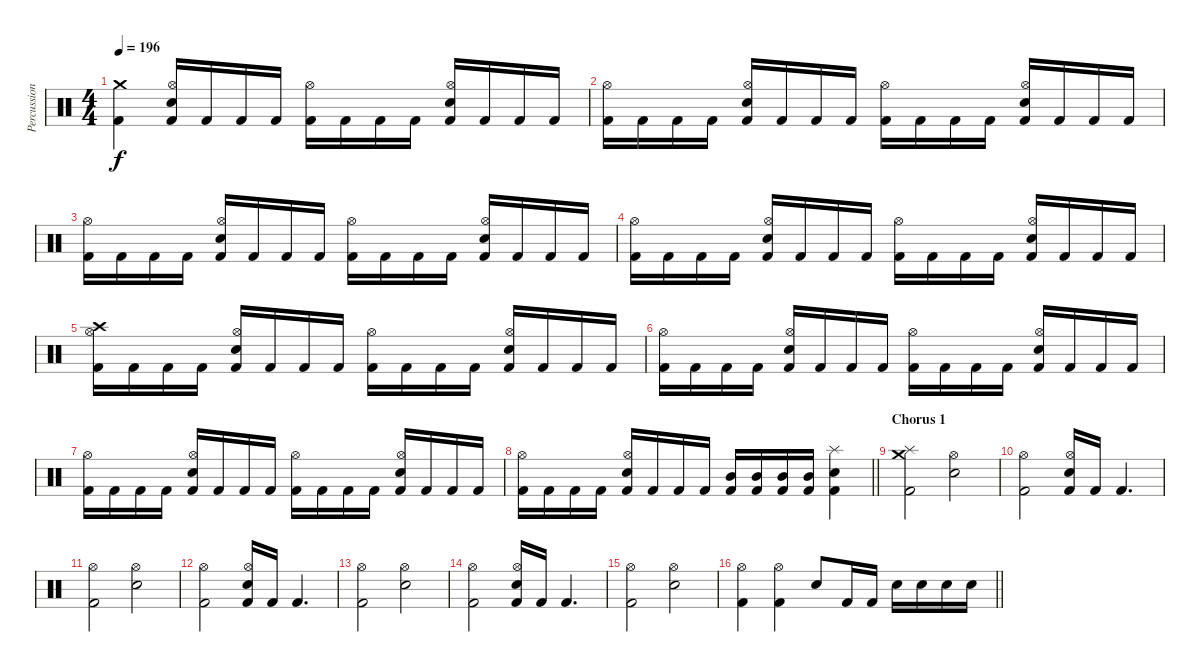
\track ("Percussion" "Percussion") {instrument percussion}
\staff {score}
\articulation defaults
\ts (4 4)
\tempo 196
\clef neutral
\ks c
("Crash medium (hit)" "Kick (hit) 2").4{dy f} ("Hi-Hat (open)" "Electric Snare (hit)" "Kick (hit) 2").16 "Kick (hit) 2".16 "Kick (hit) 2".16 "Kick (hit) 2".16 ("Hi-Hat (open)" "Kick (hit) 2").16 "Kick (hit) 2".16 "Kick (hit) 2".16 "Kick (hit) 2".16 ("Hi-Hat (open)" "Electric Snare (hit)" "Kick (hit) 2").16 "Kick (hit) 2".16 "Kick (hit) 2".16 "Kick (hit) 2".16 |
("Hi-Hat (open)" "Kick (hit) 2").16 "Kick (hit) 2".16 "Kick (hit) 2".16 "Kick (hit) 2".16 ("Hi-Hat (open)" "Electric Snare (hit)" "Kick (hit) 2").16 "Kick (hit) 2".16 "Kick (hit) 2".16 "Kick (hit) 2".16 ("Hi-Hat (open)" "Kick (hit) 2").16 "Kick (hit) 2".16 "Kick (hit) 2".16 "Kick (hit) 2".16 ("Hi-Hat (open)" "Electric Snare (hit)" "Kick (hit) 2").16 "Kick (hit) 2".16 "Kick (hit) 2".16 "Kick (hit) 2".16 |
("Hi-Hat (open)" "Kick (hit) 2").16 "Kick (hit) 2".16 "Kick (hit) 2".16 "Kick (hit) 2".16 ("Hi-Hat (open)" "Electric Snare (hit)" "Kick (hit) 2").16 "Kick (hit) 2".16 "Kick (hit) 2".16 "Kick (hit) 2".16 ("Hi-Hat (open)" "Kick (hit) 2").16 "Kick (hit) 2".16 "Kick (hit) 2".16 "Kick (hit) 2".16 ("Hi-Hat (open)" "Electric Snare (hit)" "Kick (hit) 2").16 "Kick (hit) 2".16 "Kick (hit) 2".16 "Kick (hit) 2".16 |
("Hi-Hat (open)" "Kick (hit) 2").16 "Kick (hit) 2".16 "Kick (hit) 2".16 "Kick (hit) 2".16 ("Hi-Hat (open)" "Electric Snare (hit)" "Kick (hit) 2").16 "Kick (hit) 2".16 "Kick (hit) 2".16 "Kick (hit) 2".16 ("Hi-Hat (open)" "Kick (hit) 2").16 "Kick (hit) 2".16 "Kick (hit) 2".16 "Kick (hit) 2".16 ("Hi-Hat (open)" "Electric Snare (hit)" "Kick (hit) 2").16 "Kick (hit) 2".16 "Kick (hit) 2".16 "Kick (hit) 2".16 |
("Hi-Hat (open)" "Crash high (hit)" "Kick (hit) 2").16 "Kick (hit) 2".16 "Kick (hit) 2".16 "Kick (hit) 2".16 ("Hi-Hat (open)" "Electric Snare (hit)" "Kick (hit) 2").16 "Kick (hit) 2".16 "Kick (hit) 2".16 "Kick (hit) 2".16 ("Hi-Hat (open)" "Kick (hit) 2").16 "Kick (hit) 2".16 "Kick (hit) 2".16 "Kick (hit) 2".16 ("Hi-Hat (open)" "Electric Snare (hit)" "Kick (hit) 2").16 "Kick (hit) 2".16 "Kick (hit) 2".16 "Kick (hit) 2".16 |
("Hi-Hat (open)" "Kick (hit) 2").16 "Kick (hit) 2".16 "Kick (hit) 2".16 "Kick (hit) 2".16 ("Hi-Hat (open)" "Electric Snare (hit)" "Kick (hit) 2").16 "Kick (hit) 2".16 "Kick (hit) 2".16 "Kick (hit) 2".16 ("Hi-Hat (open)" "Kick (hit) 2").16 "Kick (hit) 2".16 "Kick (hit) 2".16 "Kick (hit) 2".16 ("Hi-Hat (open)" "Electric Snare (hit)" "Kick (hit) 2").16 "Kick (hit) 2".16 "Kick (hit) 2".16 "Kick (hit) 2".16 |
("Hi-Hat (open)" "Kick (hit) 2").16 "Kick (hit) 2".16 "Kick (hit) 2".16 "Kick (hit) 2".16 ("Hi-Hat (open)" "Electric Snare (hit)" "Kick (hit) 2").16 "Kick (hit) 2".16 "Kick (hit) 2".16 "Kick (hit) 2".16 ("Hi-Hat (open)" "Kick (hit) 2").16 "Kick (hit) 2".16 "Kick (hit) 2".16 "Kick (hit) 2".16 ("Hi-Hat (open)" "Electric Snare (hit)" "Kick (hit) 2").16 "Kick (hit) 2".16 "Kick (hit) 2".16 "Kick (hit) 2".16 |
\barLineRight lightlight
("Hi-Hat (open)" "Kick (hit) 2").16 "Kick (hit) 2".16 "Kick (hit) 2".16 "Kick (hit) 2".16 ("Hi-Hat (open)" "Electric Snare (hit)" "Kick (hit) 2").16 "Kick (hit) 2".16 "Kick (hit) 2".16 "Kick (hit) 2".16 ("Mid Tom (hit)" "Kick (hit) 2").16 ("Mid Tom (hit)" "Kick (hit) 2").16 ("Mid Tom (hit)" "Kick (hit) 2").16 ("Mid Tom (hit)" "Kick (hit) 2").16 ("Splash (hit)" "Electric Snare (hit)" "Kick (hit) 2").4 |
\section ("" "Chorus 1")
("Splash (hit)" "Crash medium (hit)" "Kick (hit) 2").2 ("Hi-Hat (open)" "Electric Snare (hit)").2 |
("Hi-Hat (open)" "Kick (hit) 2").2 ("Hi-Hat (open)" "Electric Snare (hit)" "Kick (hit) 2").16 "Kick (hit) 2".16 "Kick (hit) 2".4{d} |
("Hi-Hat (open)" "Kick (hit) 2").2 ("Hi-Hat (open)" "Electric Snare (hit)").2 |
("Hi-Hat (open)" "Kick (hit) 2").2 ("Hi-Hat (open)" "Electric Snare (hit)" "Kick (hit) 2").16 "Kick (hit) 2".16 "Kick (hit) 2".4{d} |
("Hi-Hat (open)" "Kick (hit) 2").2 ("Hi-Hat (open)" "Electric Snare (hit)").2 |
("Hi-Hat (open)" "Kick (hit) 2").2 ("Hi-Hat (open)" "Electric Snare (hit)" "Kick (hit) 2").16 "Kick (hit) 2".16 "Kick (hit) 2".4{d} |
("Hi-Hat (open)" "Kick (hit) 2").2 ("Hi-Hat (open)" "Electric Snare (hit)").2 |
\barLineRight lightlight
("Hi-Hat (open)" "Kick (hit) 2").4 ("Hi-Hat (open)" "Kick (hit) 2").4 "Electric Snare (hit)".8 "Kick (hit) 2".16 "Kick (hit) 2".16 "Electric Snare (hit)".16 "Electric Snare (hit)".16 "Electric Snare (hit)".16 "Electric Snare (hit)".16
